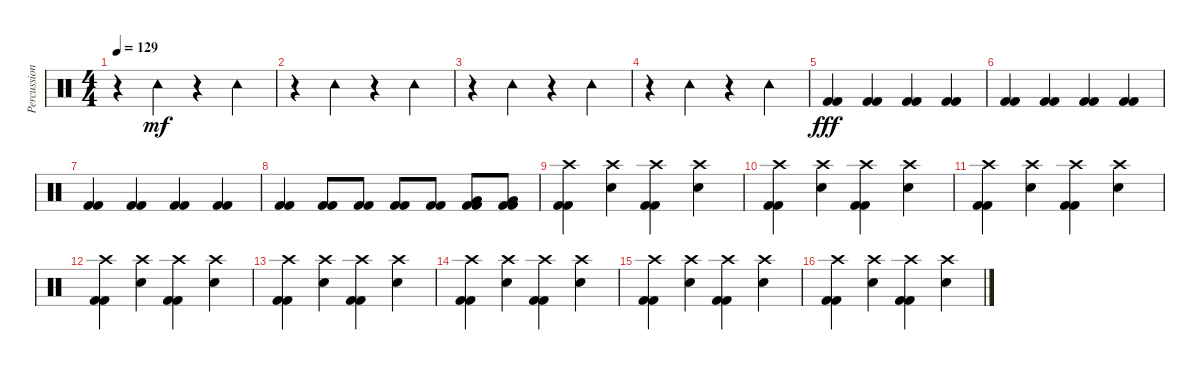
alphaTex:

\track ("Percussioni" "Percussion") {instrument percussion}
\staff {score}
\articulation defaults
\ts (4 4)
\tempo 129
\clef neutral
\ks c
r.4{dy mf} "Tambourine (hit)".4 r.4 "Tambourine (hit)".4 |
r.4 "Tambourine (hit)".4 r.4 "Tambourine (hit)".4 |
r.4 "Tambourine (hit)".4 r.4 "Tambourine (hit)".4 |
r.4 "Tambourine (hit)".4 r.4 "Tambourine (hit)".4 |
("Kick (hit) 2" "Kick (hit) 2").4{dy fff} ("Kick (hit) 2" "Kick (hit) 2").4 ("Kick (hit) 2" "Kick (hit) 2").4 ("Kick (hit) 2" "Kick (hit) 2").4 |
("Kick (hit) 2" "Kick (hit) 2").4 ("Kick (hit) 2" "Kick (hit) 2").4 ("Kick (hit) 2" "Kick (hit) 2").4 ("Kick (hit) 2" "Kick (hit) 2").4 |
("Kick (hit) 2" "Kick (hit) 2").4 ("Kick (hit) 2" "Kick (hit) 2").4 ("Kick (hit) 2" "Kick (hit) 2").4 ("Kick (hit) 2" "Kick (hit) 2").4 |
("Kick (hit) 2" "Kick (hit) 2").4 ("Kick (hit) 2" "Kick (hit) 2").8 ("Kick (hit) 2" "Kick (hit) 2").8 ("Kick (hit) 2" "Kick (hit) 2").8 ("Kick (hit) 2" "Kick (hit) 2").8 ("Very Low Tom (hit)" "Kick (hit) 2" "Kick (hit) 2").8 ("Very Low Tom (hit)" "Kick (hit) 2" "Kick (hit) 2").8 |
("Crash high (hit)" "Kick (hit) 2" "Kick (hit) 2").4 ("Crash high (hit)" "Snare (hit) 2").4 ("Crash high (hit)" "Kick (hit) 2" "Kick (hit) 2").4 ("Crash high (hit)" "Snare (hit) 2").4 |
("Crash high (hit)" "Kick (hit) 2" "Kick (hit) 2").4 ("Crash high (hit)" "Snare (hit) 2").4 ("Crash high (hit)" "Kick (hit) 2" "Kick (hit) 2").4 ("Crash high (hit)" "Snare (hit) 2").4 |
("Crash high (hit)" "Kick (hit) 2" "Kick (hit) 2").4 ("Crash high (hit)" "Snare (hit) 2").4 ("Crash high (hit)" "Kick (hit) 2" "Kick (hit) 2").4 ("Crash high (hit)" "Snare (hit) 2").4 |
("Crash high (hit)" "Kick (hit) 2" "Kick (hit) 2").4 ("Crash high (hit)" "Snare (hit) 2").4 ("Crash high (hit)" "Kick (hit) 2" "Kick (hit) 2").4 ("Crash high (hit)" "Snare (hit) 2").4 |
("Crash high (hit)" "Kick (hit) 2" "Kick (hit) 2").4 ("Crash high (hit)" "Snare (hit) 2").4 ("Crash high (hit)" "Kick (hit) 2" "Kick (hit) 2").4 ("Crash high (hit)" "Snare (hit) 2").4 |
("Crash high (hit)" "Kick (hit) 2" "Kick (hit) 2").4 ("Crash high (hit)" "Snare (hit) 2").4 ("Crash high (hit)" "Kick (hit) 2" "Kick (hit) 2").4 ("Crash high (hit)" "Snare (hit) 2").4 |
("Crash high (hit)" "Kick (hit) 2" "Kick (hit) 2").4 ("Crash high (hit)" "Snare (hit) 2").4 ("Crash high (hit)" "Kick (hit) 2" "Kick (hit) 2").4 ("Crash high (hit)" "Snare (hit) 2").4 |
("Crash high (hit)" "Kick (hit) 2" "Kick (hit) 2").4 ("Crash high (hit)" "Snare (hit) 2").4 ("Crash high (hit)" "Kick (hit) 2" "Kick (hit) 2").4 ("Crash high (hit)" "Snare (hit) 2").4
